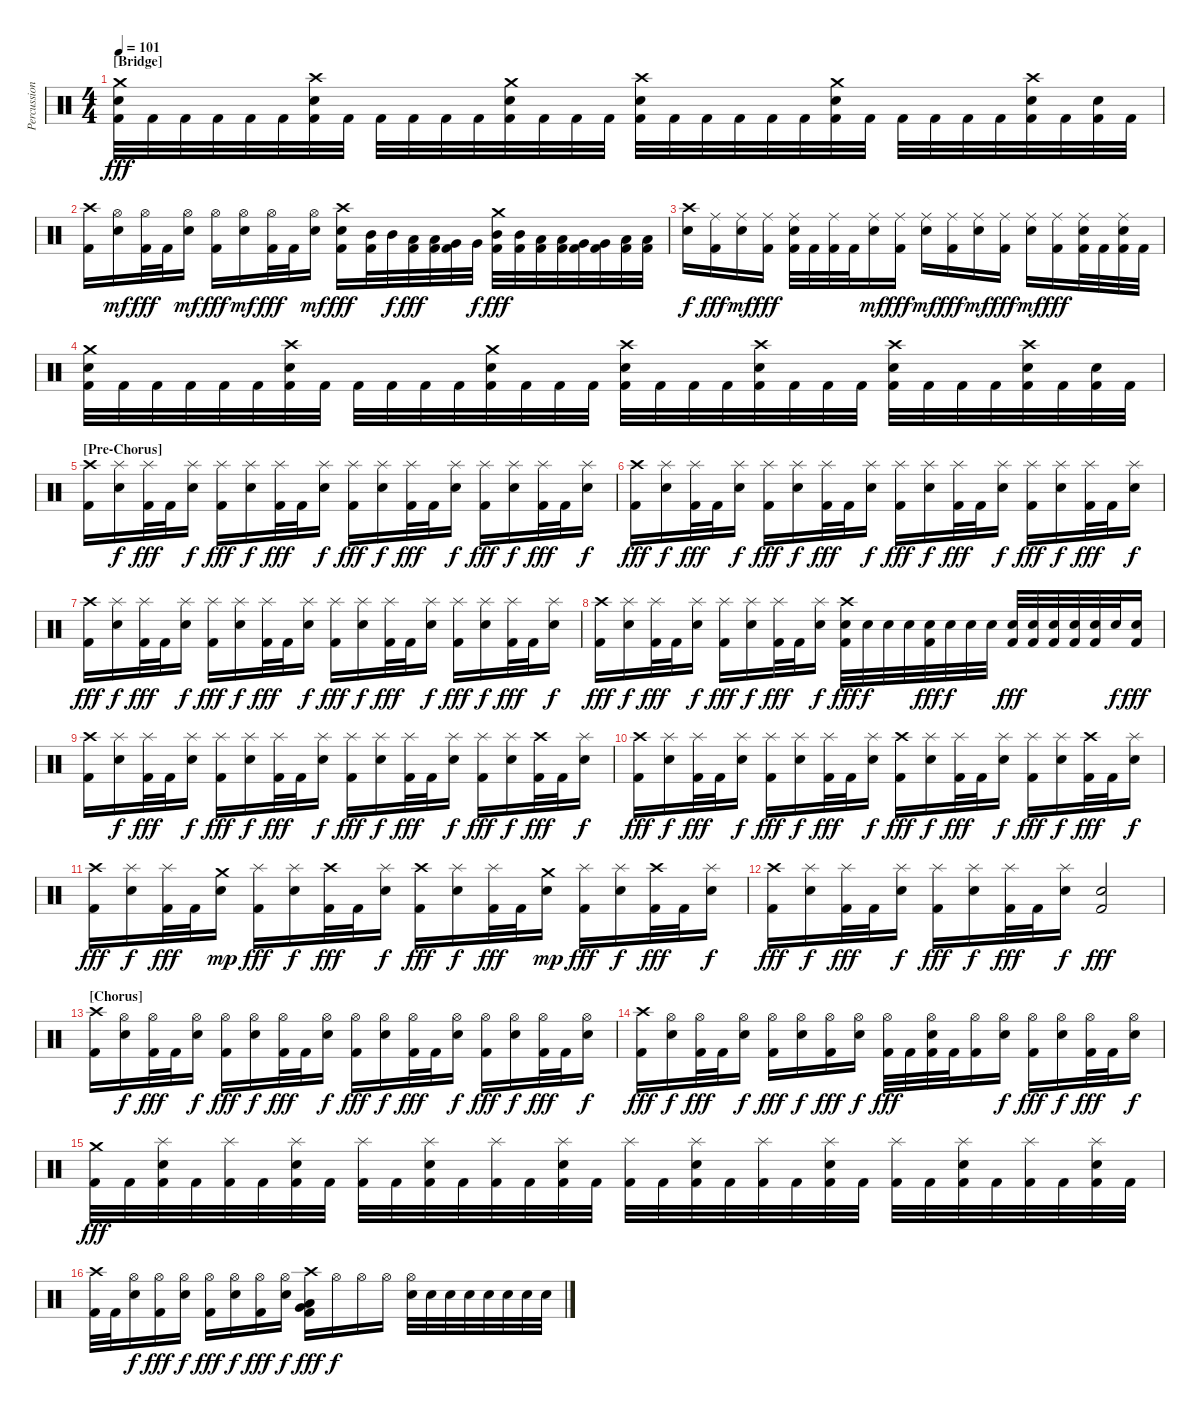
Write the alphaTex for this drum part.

\track ("Percussion" "Percussion") {instrument percussion}
\staff {score}
\articulation defaults
\ts (4 4)
\section ("" "[Bridge]")
\tempo 101
\clef neutral
\ks c
("Crash medium (hit)" "Snare (hit) 2" "Kick (hit) 2").32{dy fff} "Kick (hit) 2".32 "Kick (hit) 2".32 "Kick (hit) 2".32 "Kick (hit) 2".32 "Kick (hit) 2".32 ("Crash high (hit)" "Snare (hit) 2" "Kick (hit) 2").32 "Kick (hit) 2".32 "Kick (hit) 2".32 "Kick (hit) 2".32 "Kick (hit) 2".32 "Kick (hit) 2".32 ("Crash medium (hit)" "Snare (hit) 2" "Kick (hit) 2").32 "Kick (hit) 2".32 "Kick (hit) 2".32 "Kick (hit) 2".32 ("Crash high (hit)" "Snare (hit) 2" "Kick (hit) 2").32 "Kick (hit) 2".32 "Kick (hit) 2".32 "Kick (hit) 2".32 "Kick (hit) 2".32 "Kick (hit) 2".32 ("Crash medium (hit)" "Snare (hit) 2" "Kick (hit) 2").32 "Kick (hit) 2".32 "Kick (hit) 2".32 "Kick (hit) 2".32 "Kick (hit) 2".32 "Kick (hit) 2".32 ("Crash high (hit)" "Snare (hit) 2" "Kick (hit) 2").32 "Kick (hit) 2".32 ("Snare (hit) 2" "Kick (hit) 2").32 "Kick (hit) 2".32 |
("Crash high (hit)" "Kick (hit) 2").16 ("Hi-Hat (open)" "Snare (hit) 2").16{dy mf} ("Hi-Hat (open)" "Kick (hit) 2").32{dy fff} "Kick (hit) 2".32 ("Hi-Hat (open)" "Snare (hit) 2").16{dy mf} ("Hi-Hat (open)" "Kick (hit) 2").16{dy fff} ("Hi-Hat (open)" "Snare (hit) 2").16{dy mf} ("Hi-Hat (open)" "Kick (hit) 2").32{dy fff} "Kick (hit) 2".32 ("Hi-Hat (open)" "Snare (hit) 2").16{dy mf} ("Crash high (hit)" "Snare (hit) 2" "Kick (hit) 2").16{dy fff} ("Mid Tom (hit)" "Kick (hit) 2").32 "Mid Tom (hit)".32{dy f} ("Low Tom (hit)" "Kick (hit) 2").32{dy fff} ("Low Tom (hit)" "Kick (hit) 2").32 ("Very Low Tom (hit)" "Kick (hit) 2").32 "Very Low Tom (hit)".32{dy f} ("Crash medium (hit)" "Mid Tom (hit)" "Kick (hit) 2").32{dy fff} ("Mid Tom (hit)" "Kick (hit) 2").32 ("Low Tom (hit)" "Kick (hit) 2").32 ("Low Tom (hit)" "Kick (hit) 2").32 ("Very Low Tom (hit)" "Kick (hit) 2").32 ("Very Low Tom (hit)" "Kick (hit) 2").32 ("Low Floor Tom (hit)" "Kick (hit) 2").32 ("Low Floor Tom (hit)" "Kick (hit) 2").32 |
("Crash high (hit)" "Snare (hit) 2").16{dy f} ("Ride (middle)" "Kick (hit) 2").16{dy fff} ("Ride (middle)" "Snare (hit) 2").16{dy mf} ("Ride (middle)" "Kick (hit) 2").16{dy fff} ("Ride (middle)" "Snare (hit) 2" "Kick (hit) 2").32 "Kick (hit) 2".32 ("Ride (middle)" "Kick (hit) 2").32 "Kick (hit) 2".32 ("Ride (middle)" "Snare (hit) 2").16{dy mf} ("Ride (middle)" "Kick (hit) 2").16{dy fff} ("Ride (middle)" "Snare (hit) 2").16{dy mf} ("Ride (middle)" "Kick (hit) 2").16{dy fff} ("Ride (middle)" "Snare (hit) 2").16{dy mf} ("Ride (middle)" "Kick (hit) 2").16{dy fff} ("Ride (middle)" "Snare (hit) 2").16{dy mf} ("Ride (middle)" "Kick (hit) 2").16{dy fff} ("Ride (middle)" "Snare (hit) 2" "Kick (hit) 2").32 "Kick (hit) 2".32 ("Ride (middle)" "Snare (hit) 2" "Kick (hit) 2").32 "Kick (hit) 2".32 |
("Crash medium (hit)" "Snare (hit) 2" "Kick (hit) 2").32 "Kick (hit) 2".32 "Kick (hit) 2".32 "Kick (hit) 2".32 "Kick (hit) 2".32 "Kick (hit) 2".32 ("Crash high (hit)" "Snare (hit) 2" "Kick (hit) 2").32 "Kick (hit) 2".32 "Kick (hit) 2".32 "Kick (hit) 2".32 "Kick (hit) 2".32 "Kick (hit) 2".32 ("Crash medium (hit)" "Snare (hit) 2" "Kick (hit) 2").32 "Kick (hit) 2".32 "Kick (hit) 2".32 "Kick (hit) 2".32 ("Crash high (hit)" "Snare (hit) 2" "Kick (hit) 2").32 "Kick (hit) 2".32 "Kick (hit) 2".32 "Kick (hit) 2".32 ("Crash high (hit)" "Snare (hit) 2" "Kick (hit) 2").32 "Kick (hit) 2".32 "Kick (hit) 2".32 "Kick (hit) 2".32 ("Crash high (hit)" "Snare (hit) 2" "Kick (hit) 2").32 "Kick (hit) 2".32 "Kick (hit) 2".32 "Kick (hit) 2".32 ("Crash high (hit)" "Snare (hit) 2" "Kick (hit) 2").32 "Kick (hit) 2".32 ("Snare (hit) 2" "Kick (hit) 2").32 "Kick (hit) 2".32 |
\section ("" "[Pre-Chorus]")
("Crash high (hit)" "Kick (hit) 2").16 ("Splash (hit)" "Snare (hit) 2").16{dy f} ("Splash (hit)" "Kick (hit) 2").32{dy fff} "Kick (hit) 2".32 ("Splash (hit)" "Snare (hit) 2").16{dy f} ("Splash (hit)" "Kick (hit) 2").16{dy fff} ("Splash (hit)" "Snare (hit) 2").16{dy f} ("Splash (hit)" "Kick (hit) 2").32{dy fff} "Kick (hit) 2".32 ("Splash (hit)" "Snare (hit) 2").16{dy f} ("Splash (hit)" "Kick (hit) 2").16{dy fff} ("Splash (hit)" "Snare (hit) 2").16{dy f} ("Splash (hit)" "Kick (hit) 2").32{dy fff} "Kick (hit) 2".32 ("Splash (hit)" "Snare (hit) 2").16{dy f} ("Splash (hit)" "Kick (hit) 2").16{dy fff} ("Splash (hit)" "Snare (hit) 2").16{dy f} ("Splash (hit)" "Kick (hit) 2").32{dy fff} "Kick (hit) 2".32 ("Splash (hit)" "Snare (hit) 2").16{dy f} |
("Crash high (hit)" "Kick (hit) 2").16{dy fff} ("Splash (hit)" "Snare (hit) 2").16{dy f} ("Splash (hit)" "Kick (hit) 2").32{dy fff} "Kick (hit) 2".32 ("Splash (hit)" "Snare (hit) 2").16{dy f} ("Splash (hit)" "Kick (hit) 2").16{dy fff} ("Splash (hit)" "Snare (hit) 2").16{dy f} ("Splash (hit)" "Kick (hit) 2").32{dy fff} "Kick (hit) 2".32 ("Splash (hit)" "Snare (hit) 2").16{dy f} ("Splash (hit)" "Kick (hit) 2").16{dy fff} ("Splash (hit)" "Snare (hit) 2").16{dy f} ("Splash (hit)" "Kick (hit) 2").32{dy fff} "Kick (hit) 2".32 ("Splash (hit)" "Snare (hit) 2").16{dy f} ("Splash (hit)" "Kick (hit) 2").16{dy fff} ("Splash (hit)" "Snare (hit) 2").16{dy f} ("Splash (hit)" "Kick (hit) 2").32{dy fff} "Kick (hit) 2".32 ("Splash (hit)" "Snare (hit) 2").16{dy f} |
("Crash high (hit)" "Kick (hit) 2").16{dy fff} ("Splash (hit)" "Snare (hit) 2").16{dy f} ("Splash (hit)" "Kick (hit) 2").32{dy fff} "Kick (hit) 2".32 ("Splash (hit)" "Snare (hit) 2").16{dy f} ("Splash (hit)" "Kick (hit) 2").16{dy fff} ("Splash (hit)" "Snare (hit) 2").16{dy f} ("Splash (hit)" "Kick (hit) 2").32{dy fff} "Kick (hit) 2".32 ("Splash (hit)" "Snare (hit) 2").16{dy f} ("Splash (hit)" "Kick (hit) 2").16{dy fff} ("Splash (hit)" "Snare (hit) 2").16{dy f} ("Splash (hit)" "Kick (hit) 2").32{dy fff} "Kick (hit) 2".32 ("Splash (hit)" "Snare (hit) 2").16{dy f} ("Splash (hit)" "Kick (hit) 2").16{dy fff} ("Splash (hit)" "Snare (hit) 2").16{dy f} ("Splash (hit)" "Kick (hit) 2").32{dy fff} "Kick (hit) 2".32 ("Splash (hit)" "Snare (hit) 2").16{dy f} |
("Crash high (hit)" "Kick (hit) 2").16{dy fff} ("Splash (hit)" "Snare (hit) 2").16{dy f} ("Splash (hit)" "Kick (hit) 2").32{dy fff} "Kick (hit) 2".32 ("Splash (hit)" "Snare (hit) 2").16{dy f} ("Splash (hit)" "Kick (hit) 2").16{dy fff} ("Splash (hit)" "Snare (hit) 2").16{dy f} ("Splash (hit)" "Kick (hit) 2").32{dy fff} "Kick (hit) 2".32 ("Splash (hit)" "Snare (hit) 2").16{dy f} ("Crash high (hit)" "Snare (hit) 2" "Kick (hit) 2").32{dy fff} "Snare (hit) 2".32{dy f} "Snare (hit) 2".32 "Snare (hit) 2".32 ("Snare (hit) 2" "Kick (hit) 2").32{dy fff} "Snare (hit) 2".32{dy f} "Snare (hit) 2".32 "Snare (hit) 2".32 ("Snare (hit) 2" "Kick (hit) 2").32{dy fff} ("Snare (hit) 2" "Kick (hit) 2").32 ("Snare (hit) 2" "Kick (hit) 2").32 ("Snare (hit) 2" "Kick (hit) 2").32 ("Snare (hit) 2" "Kick (hit) 2").32 "Snare (hit) 2".32{dy f} ("Snare (hit) 2" "Kick (hit) 2").16{dy fff} |
("Crash high (hit)" "Kick (hit) 2").16 ("Splash (hit)" "Snare (hit) 2").16{dy f} ("Splash (hit)" "Kick (hit) 2").32{dy fff} "Kick (hit) 2".32 ("Splash (hit)" "Snare (hit) 2").16{dy f} ("Splash (hit)" "Kick (hit) 2").16{dy fff} ("Splash (hit)" "Snare (hit) 2").16{dy f} ("Splash (hit)" "Kick (hit) 2").32{dy fff} "Kick (hit) 2".32 ("Splash (hit)" "Snare (hit) 2").16{dy f} ("Splash (hit)" "Kick (hit) 2").16{dy fff} ("Splash (hit)" "Snare (hit) 2").16{dy f} ("Splash (hit)" "Kick (hit) 2").32{dy fff} "Kick (hit) 2".32 ("Splash (hit)" "Snare (hit) 2").16{dy f} ("Splash (hit)" "Kick (hit) 2").16{dy fff} ("Splash (hit)" "Snare (hit) 2").16{dy f} ("Crash high (hit)" "Kick (hit) 2").32{dy fff} "Kick (hit) 2".32 ("Splash (hit)" "Snare (hit) 2").16{dy f} |
("Crash high (hit)" "Kick (hit) 2").16{dy fff} ("Splash (hit)" "Snare (hit) 2").16{dy f} ("Splash (hit)" "Kick (hit) 2").32{dy fff} "Kick (hit) 2".32 ("Splash (hit)" "Snare (hit) 2").16{dy f} ("Splash (hit)" "Kick (hit) 2").16{dy fff} ("Splash (hit)" "Snare (hit) 2").16{dy f} ("Splash (hit)" "Kick (hit) 2").32{dy fff} "Kick (hit) 2".32 ("Splash (hit)" "Snare (hit) 2").16{dy f} ("Crash high (hit)" "Kick (hit) 2").16{dy fff} ("Splash (hit)" "Snare (hit) 2").16{dy f} ("Splash (hit)" "Kick (hit) 2").32{dy fff} "Kick (hit) 2".32 ("Splash (hit)" "Snare (hit) 2").16{dy f} ("Splash (hit)" "Kick (hit) 2").16{dy fff} ("Splash (hit)" "Snare (hit) 2").16{dy f} ("Crash high (hit)" "Kick (hit) 2").32{dy fff} "Kick (hit) 2".32 ("Splash (hit)" "Snare (hit) 2").16{dy f} |
("Crash high (hit)" "Kick (hit) 2").16{dy fff} ("Splash (hit)" "Snare (hit) 2").16{dy f} ("Splash (hit)" "Kick (hit) 2").32{dy fff} "Kick (hit) 2".32 ("Crash medium (hit)" "Snare (hit) 2").16{dy mp} ("Splash (hit)" "Kick (hit) 2").16{dy fff} ("Splash (hit)" "Snare (hit) 2").16{dy f} ("Crash high (hit)" "Kick (hit) 2").32{dy fff} "Kick (hit) 2".32 ("Splash (hit)" "Snare (hit) 2").16{dy f} ("Crash high (hit)" "Kick (hit) 2").16{dy fff} ("Splash (hit)" "Snare (hit) 2").16{dy f} ("Splash (hit)" "Kick (hit) 2").32{dy fff} "Kick (hit) 2".32 ("Crash medium (hit)" "Snare (hit) 2").16{dy mp} ("Splash (hit)" "Kick (hit) 2").16{dy fff} ("Splash (hit)" "Snare (hit) 2").16{dy f} ("Crash high (hit)" "Kick (hit) 2").32{dy fff} "Kick (hit) 2".32 ("Splash (hit)" "Snare (hit) 2").16{dy f} |
("Crash high (hit)" "Kick (hit) 2").16{dy fff} ("Splash (hit)" "Snare (hit) 2").16{dy f} ("Splash (hit)" "Kick (hit) 2").32{dy fff} "Kick (hit) 2".32 ("Splash (hit)" "Snare (hit) 2").16{dy f} ("Splash (hit)" "Kick (hit) 2").16{dy fff} ("Splash (hit)" "Snare (hit) 2").16{dy f} ("Splash (hit)" "Kick (hit) 2").32{dy fff} "Kick (hit) 2".32 ("Splash (hit)" "Snare (hit) 2").16{dy f} ("Snare (hit) 2" "Kick (hit) 2").2{dy fff} |
\section ("" "[Chorus]")
("Crash high (hit)" "Kick (hit) 2").16 ("Hi-Hat (open)" "Snare (hit) 2").16{dy f} ("Hi-Hat (open)" "Kick (hit) 2").32{dy fff} "Kick (hit) 2".32 ("Hi-Hat (open)" "Snare (hit) 2").16{dy f} ("Hi-Hat (open)" "Kick (hit) 2").16{dy fff} ("Hi-Hat (open)" "Snare (hit) 2").16{dy f} ("Hi-Hat (open)" "Kick (hit) 2").32{dy fff} "Kick (hit) 2".32 ("Hi-Hat (open)" "Snare (hit) 2").16{dy f} ("Hi-Hat (open)" "Kick (hit) 2").16{dy fff} ("Hi-Hat (open)" "Snare (hit) 2").16{dy f} ("Hi-Hat (open)" "Kick (hit) 2").32{dy fff} "Kick (hit) 2".32 ("Hi-Hat (open)" "Snare (hit) 2").16{dy f} ("Hi-Hat (open)" "Kick (hit) 2").16{dy fff} ("Hi-Hat (open)" "Snare (hit) 2").16{dy f} ("Hi-Hat (open)" "Kick (hit) 2").32{dy fff} "Kick (hit) 2".32 ("Hi-Hat (open)" "Snare (hit) 2").16{dy f} |
("Crash high (hit)" "Kick (hit) 2").16{dy fff} ("Hi-Hat (open)" "Snare (hit) 2").16{dy f} ("Hi-Hat (open)" "Kick (hit) 2").32{dy fff} "Kick (hit) 2".32 ("Hi-Hat (open)" "Snare (hit) 2").16{dy f} ("Hi-Hat (open)" "Kick (hit) 2").16{dy fff} ("Hi-Hat (open)" "Snare (hit) 2").16{dy f} ("Hi-Hat (open)" "Kick (hit) 2").16{dy fff} ("Hi-Hat (open)" "Snare (hit) 2").16{dy f} ("Hi-Hat (open)" "Kick (hit) 2").32{dy fff} "Kick (hit) 2".32 ("Hi-Hat (open)" "Snare (hit) 2" "Kick (hit) 2").32 "Kick (hit) 2".32 ("Hi-Hat (open)" "Kick (hit) 2").16 ("Hi-Hat (open)" "Snare (hit) 2").16{dy f} ("Hi-Hat (open)" "Kick (hit) 2").16{dy fff} ("Hi-Hat (open)" "Snare (hit) 2").16{dy f} ("Hi-Hat (open)" "Kick (hit) 2").32{dy fff} "Kick (hit) 2".32 ("Hi-Hat (open)" "Snare (hit) 2").16{dy f} |
("Crash medium (hit)" "Kick (hit) 2").32{dy fff} "Kick (hit) 2".32 ("Splash (hit)" "Snare (hit) 2" "Kick (hit) 2").32 "Kick (hit) 2".32 ("Splash (hit)" "Kick (hit) 2").32 "Kick (hit) 2".32 ("Splash (hit)" "Snare (hit) 2" "Kick (hit) 2").32 "Kick (hit) 2".32 ("Splash (hit)" "Kick (hit) 2").32 "Kick (hit) 2".32 ("Splash (hit)" "Snare (hit) 2" "Kick (hit) 2").32 "Kick (hit) 2".32 ("Splash (hit)" "Kick (hit) 2").32 "Kick (hit) 2".32 ("Splash (hit)" "Snare (hit) 2" "Kick (hit) 2").32 "Kick (hit) 2".32 ("Splash (hit)" "Kick (hit) 2").32 "Kick (hit) 2".32 ("Splash (hit)" "Snare (hit) 2" "Kick (hit) 2").32 "Kick (hit) 2".32 ("Splash (hit)" "Kick (hit) 2").32 "Kick (hit) 2".32 ("Splash (hit)" "Snare (hit) 2" "Kick (hit) 2").32 "Kick (hit) 2".32 ("Splash (hit)" "Kick (hit) 2").32 "Kick (hit) 2".32 ("Splash (hit)" "Snare (hit) 2" "Kick (hit) 2").32 "Kick (hit) 2".32 ("Splash (hit)" "Kick (hit) 2").32 "Kick (hit) 2".32 ("Splash (hit)" "Snare (hit) 2" "Kick (hit) 2").32 "Kick (hit) 2".32 |
("Crash high (hit)" "Kick (hit) 2").32 "Kick (hit) 2".32 ("Hi-Hat (open)" "Snare (hit) 2").16{dy f} ("Hi-Hat (open)" "Kick (hit) 2").16{dy fff} ("Hi-Hat (open)" "Snare (hit) 2").16{dy f} ("Hi-Hat (open)" "Kick (hit) 2").16{dy fff} ("Hi-Hat (open)" "Snare (hit) 2").16{dy f} ("Hi-Hat (open)" "Kick (hit) 2").16{dy fff} ("Hi-Hat (open)" "Snare (hit) 2").16{dy f} ("Crash high (hit)" "Very Low Tom (hit)" "Low Tom (hit)" "Kick (hit) 2").16{dy fff} "Hi-Hat (open)".16{dy f} "Hi-Hat (open)".16 "Hi-Hat (open)".16 ("Hi-Hat (open)" "Snare (hit) 2").32 "Snare (hit) 2".32 "Snare (hit) 2".32 "Snare (hit) 2".32 "Snare (hit) 2".32 "Snare (hit) 2".32 "Snare (hit) 2".32 "Snare (hit) 2".32
